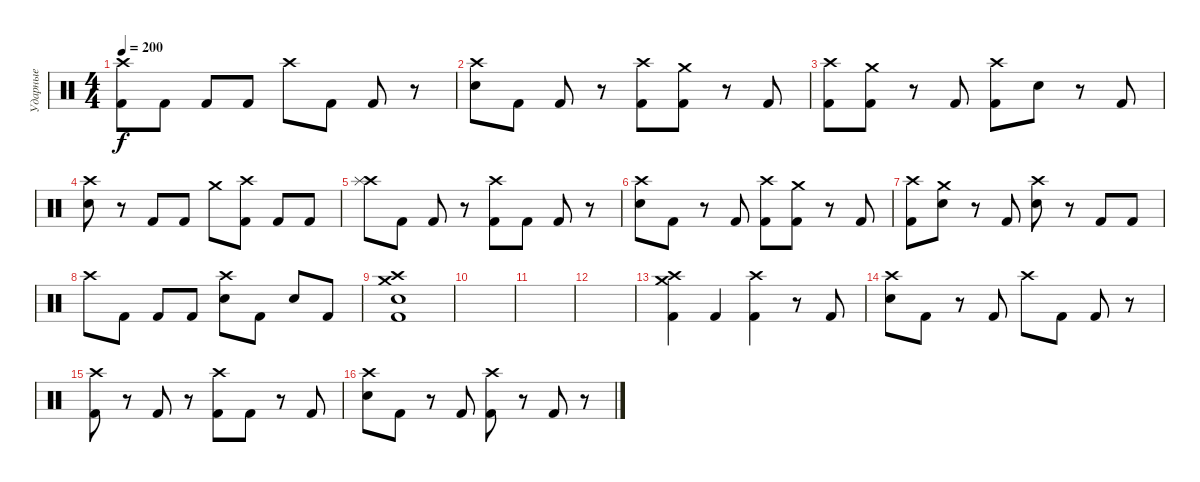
\track ("Ударные" "Ударные") {instrument percussion}
\staff {score}
\articulation defaults
\ts (4 4)
\tempo 200
\clef neutral
\ks c
("Crash high (hit)" "Kick (hit) 2").8{dy f} "Kick (hit) 2".8 "Kick (hit) 2".8 "Kick (hit) 2".8 "Crash high (hit)".8 "Kick (hit) 2".8 "Kick (hit) 2".8 r.8 |
("Crash high (hit)" "Snare (hit) 2").8 "Kick (hit) 2".8 "Kick (hit) 2".8 r.8 ("Crash high (hit)" "Kick (hit) 2").8 ("Crash medium (hit)" "Kick (hit) 2").8 r.8 "Kick (hit) 2".8 |
("Crash high (hit)" "Kick (hit) 2").8 ("Crash medium (hit)" "Kick (hit) 2").8 r.8 "Kick (hit) 2".8 ("Crash high (hit)" "Kick (hit) 2").8 "Snare (hit) 2".8 r.8 "Kick (hit) 2".8 |
("Crash high (hit)" "Snare (hit) 2").8 r.8 "Kick (hit) 2".8 "Kick (hit) 2".8 "Crash medium (hit)".8 ("Crash high (hit)" "Kick (hit) 2").8 "Kick (hit) 2".8 "Kick (hit) 2".8 |
("Crash high (hit)" "Splash (hit)").8 "Kick (hit) 2".8 "Kick (hit) 2".8 r.8 ("Crash high (hit)" "Kick (hit) 2").8 "Kick (hit) 2".8 "Kick (hit) 2".8 r.8 |
("Crash high (hit)" "Snare (hit) 2").8 "Kick (hit) 2".8 r.8 "Kick (hit) 2".8 ("Crash high (hit)" "Kick (hit) 2").8 ("Crash medium (hit)" "Kick (hit) 2").8 r.8 "Kick (hit) 2".8 |
("Crash high (hit)" "Kick (hit) 2").8 ("Crash medium (hit)" "Snare (hit) 2").8 r.8 "Kick (hit) 2".8 ("Crash high (hit)" "Snare (hit) 2").8 r.8 "Kick (hit) 2".8 "Kick (hit) 2".8 |
"Crash high (hit)".8 "Kick (hit) 2".8 "Kick (hit) 2".8 "Kick (hit) 2".8 ("Crash high (hit)" "Snare (hit) 2").8 "Kick (hit) 2".8 "Snare (hit) 2".8 "Kick (hit) 2".8 |
("Crash medium (hit)" "Crash high (hit)" "Snare (hit) 2" "Kick (hit) 2").1 |
|
|
|
("Crash high (hit)" "Crash medium (hit)" "Kick (hit) 2").4 "Kick (hit) 2".4 ("Crash high (hit)" "Kick (hit) 2").4 r.8 "Kick (hit) 2".8 |
("Crash high (hit)" "Snare (hit) 2").8 "Kick (hit) 2".8 r.8 "Kick (hit) 2".8 "Crash high (hit)".8 "Kick (hit) 2".8 "Kick (hit) 2".8 r.8 |
("Crash high (hit)" "Kick (hit) 2").8 r.8 "Kick (hit) 2".8 r.8 ("Crash high (hit)" "Kick (hit) 2").8 "Kick (hit) 2".8 r.8 "Kick (hit) 2".8 |
("Crash high (hit)" "Snare (hit) 2").8 "Kick (hit) 2".8 r.8 "Kick (hit) 2".8 ("Crash high (hit)" "Kick (hit) 2").8 r.8 "Kick (hit) 2".8 r.8
